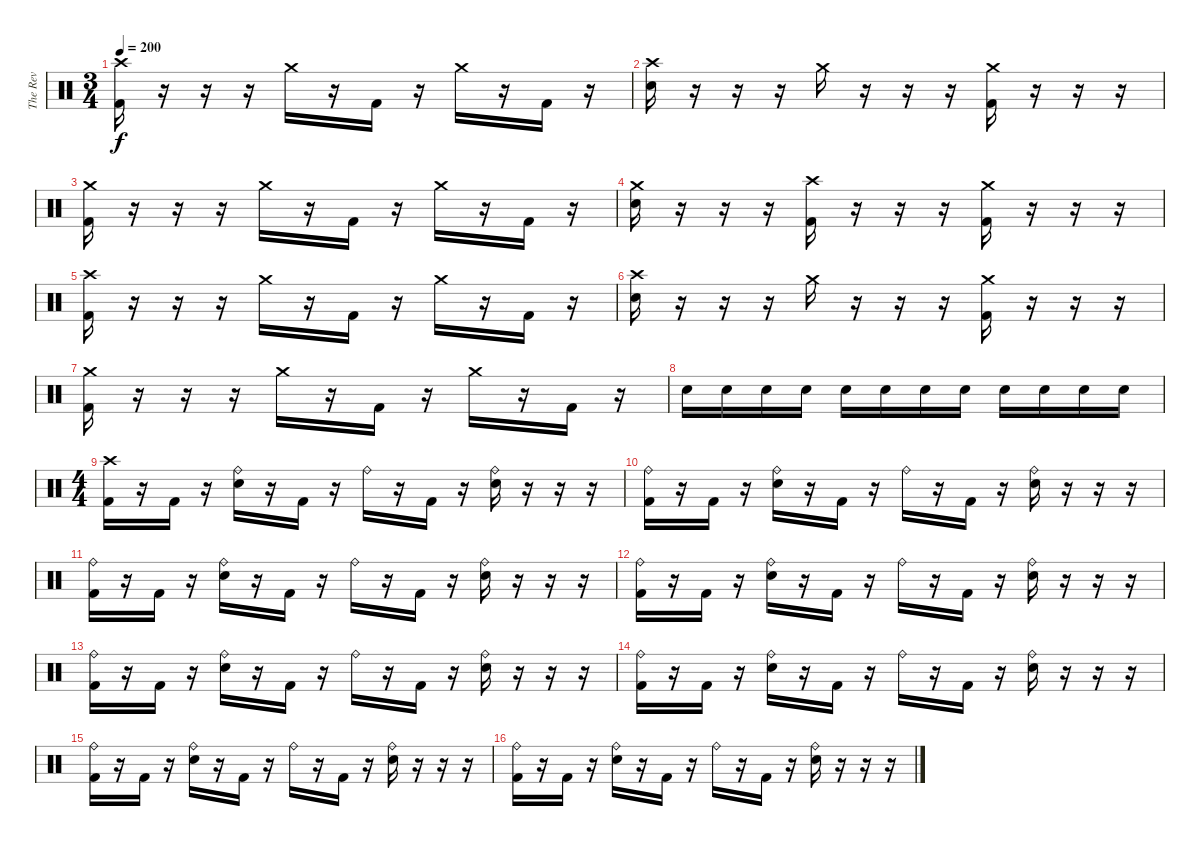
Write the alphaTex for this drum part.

\track ("The Rev" "The Rev") {instrument percussion}
\staff {score}
\articulation defaults
\ts (3 4)
\tempo 200
\clef neutral
\ks c
("Crash high (hit)" "Kick (hit) 2").16{dy f} r.16 r.16 r.16 "Crash medium (hit)".16 r.16 "Kick (hit) 2".16 r.16 "Crash medium (hit)".16 r.16 "Kick (hit) 2".16 r.16 |
("Crash high (hit)" "Electric Snare (hit)").16 r.16 r.16 r.16 "Crash medium (hit)".16 r.16 r.16 r.16 ("Crash medium (hit)" "Kick (hit) 2").16 r.16 r.16 r.16 |
("Crash medium (hit)" "Kick (hit) 2").16 r.16 r.16 r.16 "Crash medium (hit)".16 r.16 "Kick (hit) 2".16 r.16 "Crash medium (hit)".16 r.16 "Kick (hit) 2".16 r.16 |
("Crash medium (hit)" "Electric Snare (hit)").16 r.16 r.16 r.16 ("Crash high (hit)" "Kick (hit) 2").16 r.16 r.16 r.16 ("Crash medium (hit)" "Kick (hit) 2").16 r.16 r.16 r.16 |
("Crash high (hit)" "Kick (hit) 2").16 r.16 r.16 r.16 "Crash medium (hit)".16 r.16 "Kick (hit) 2".16 r.16 "Crash medium (hit)".16 r.16 "Kick (hit) 2".16 r.16 |
("Crash high (hit)" "Electric Snare (hit)").16 r.16 r.16 r.16 "Crash medium (hit)".16 r.16 r.16 r.16 ("Crash medium (hit)" "Kick (hit) 2").16 r.16 r.16 r.16 |
("Crash medium (hit)" "Kick (hit) 2").16 r.16 r.16 r.16 "Crash medium (hit)".16 r.16 "Kick (hit) 2".16 r.16 "Crash medium (hit)".16 r.16 "Kick (hit) 2".16 r.16 |
"Electric Snare (hit)".16 "Electric Snare (hit)".16 "Electric Snare (hit)".16 "Electric Snare (hit)".16 "Electric Snare (hit)".16 "Electric Snare (hit)".16 "Electric Snare (hit)".16 "Electric Snare (hit)".16 "Electric Snare (hit)".16 "Electric Snare (hit)".16 "Electric Snare (hit)".16 "Electric Snare (hit)".16 |
\ts (4 4)
("Crash high (hit)" "Kick (hit) 2").16 r.16 "Kick (hit) 2".16 r.16 ("Ride (bell)" "Electric Snare (hit)").16 r.16 "Kick (hit) 2".16 r.16 "Ride (bell)".16 r.16 "Kick (hit) 2".16 r.16 ("Ride (bell)" "Electric Snare (hit)").16 r.16 r.16 r.16 |
("Ride (bell)" "Kick (hit) 2").16 r.16 "Kick (hit) 2".16 r.16 ("Ride (bell)" "Electric Snare (hit)").16 r.16 "Kick (hit) 2".16 r.16 "Ride (bell)".16 r.16 "Kick (hit) 2".16 r.16 ("Ride (bell)" "Electric Snare (hit)").16 r.16 r.16 r.16 |
("Ride (bell)" "Kick (hit) 2").16 r.16 "Kick (hit) 2".16 r.16 ("Ride (bell)" "Electric Snare (hit)").16 r.16 "Kick (hit) 2".16 r.16 "Ride (bell)".16 r.16 "Kick (hit) 2".16 r.16 ("Ride (bell)" "Electric Snare (hit)").16 r.16 r.16 r.16 |
("Ride (bell)" "Kick (hit) 2").16 r.16 "Kick (hit) 2".16 r.16 ("Ride (bell)" "Electric Snare (hit)").16 r.16 "Kick (hit) 2".16 r.16 "Ride (bell)".16 r.16 "Kick (hit) 2".16 r.16 ("Ride (bell)" "Electric Snare (hit)").16 r.16 r.16 r.16 |
("Ride (bell)" "Kick (hit) 2").16 r.16 "Kick (hit) 2".16 r.16 ("Ride (bell)" "Electric Snare (hit)").16 r.16 "Kick (hit) 2".16 r.16 "Ride (bell)".16 r.16 "Kick (hit) 2".16 r.16 ("Ride (bell)" "Electric Snare (hit)").16 r.16 r.16 r.16 |
("Ride (bell)" "Kick (hit) 2").16 r.16 "Kick (hit) 2".16 r.16 ("Ride (bell)" "Electric Snare (hit)").16 r.16 "Kick (hit) 2".16 r.16 "Ride (bell)".16 r.16 "Kick (hit) 2".16 r.16 ("Ride (bell)" "Electric Snare (hit)").16 r.16 r.16 r.16 |
("Ride (bell)" "Kick (hit) 2").16 r.16 "Kick (hit) 2".16 r.16 ("Ride (bell)" "Electric Snare (hit)").16 r.16 "Kick (hit) 2".16 r.16 "Ride (bell)".16 r.16 "Kick (hit) 2".16 r.16 ("Ride (bell)" "Electric Snare (hit)").16 r.16 r.16 r.16 |
("Ride (bell)" "Kick (hit) 2").16 r.16 "Kick (hit) 2".16 r.16 ("Ride (bell)" "Electric Snare (hit)").16 r.16 "Kick (hit) 2".16 r.16 "Ride (bell)".16 r.16 "Kick (hit) 2".16 r.16 ("Ride (bell)" "Electric Snare (hit)").16 r.16 r.16 r.16
